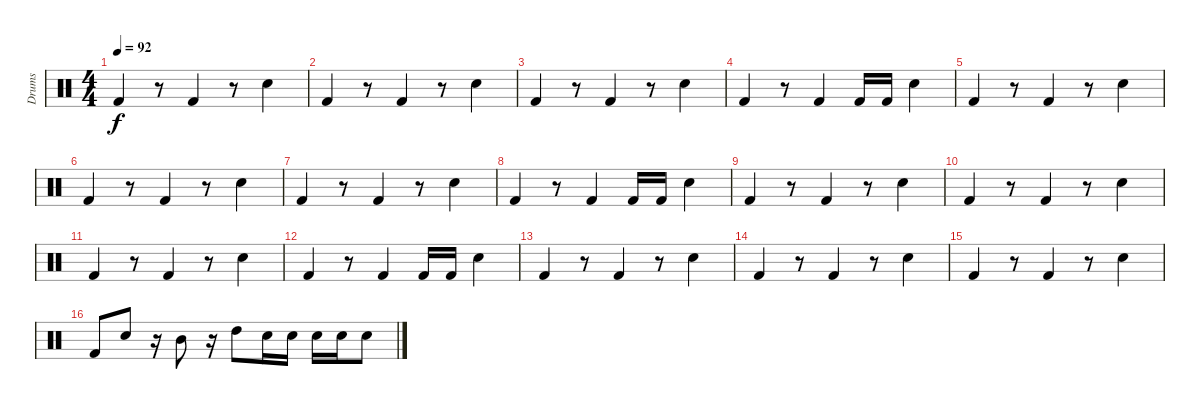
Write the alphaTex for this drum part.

\track ("Drums" "Drums") {instrument percussion}
\staff {score}
\articulation defaults
\ts (4 4)
\tempo 92
\clef neutral
\ks c "Kick (hit) 2".4{dy f}
r.8 "Kick (hit) 2".4 r.8 "Snare (hit) 2".4 |
"Kick (hit) 2".4 r.8 "Kick (hit) 2".4 r.8 "Snare (hit) 2".4 |
"Kick (hit) 2".4 r.8 "Kick (hit) 2".4 r.8 "Snare (hit) 2".4 |
"Kick (hit) 2".4 r.8 "Kick (hit) 2".4 "Kick (hit) 2".16 "Kick (hit) 2".16 "Snare (hit) 2".4 |
"Kick (hit) 2".4 r.8 "Kick (hit) 2".4 r.8 "Snare (hit) 2".4 |
"Kick (hit) 2".4 r.8 "Kick (hit) 2".4 r.8 "Snare (hit) 2".4 |
"Kick (hit) 2".4 r.8 "Kick (hit) 2".4 r.8 "Snare (hit) 2".4 |
"Kick (hit) 2".4 r.8 "Kick (hit) 2".4 "Kick (hit) 2".16 "Kick (hit) 2".16 "Snare (hit) 2".4 |
"Kick (hit) 2".4 r.8 "Kick (hit) 2".4 r.8 "Snare (hit) 2".4 |
"Kick (hit) 2".4 r.8 "Kick (hit) 2".4 r.8 "Snare (hit) 2".4 |
"Kick (hit) 2".4 r.8 "Kick (hit) 2".4 r.8 "Snare (hit) 2".4 |
"Kick (hit) 2".4 r.8 "Kick (hit) 2".4 "Kick (hit) 2".16 "Kick (hit) 2".16 "Snare (hit) 2".4 |
"Kick (hit) 2".4 r.8 "Kick (hit) 2".4 r.8 "Snare (hit) 2".4 |
"Kick (hit) 2".4 r.8 "Kick (hit) 2".4 r.8 "Snare (hit) 2".4 |
"Kick (hit) 2".4 r.8 "Kick (hit) 2".4 r.8 "Snare (hit) 2".4 |
"Kick (hit) 2".8 "Snare (hit) 2".8 r.16 "Mid Tom (hit)".8 r.16 "High Tom (hit)".8 "Snare (hit) 2".16 "Snare (hit) 2".16 "Snare (hit) 2".16 "Snare (hit) 2".16 "Snare (hit) 2".8
